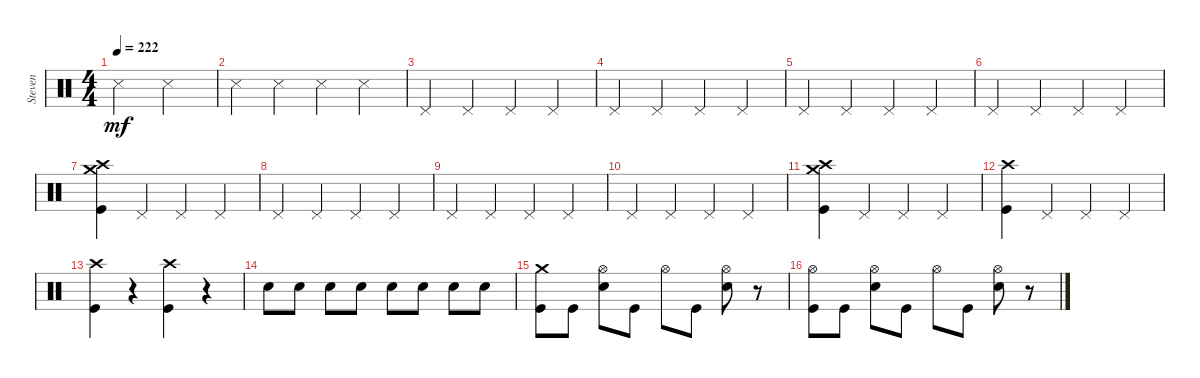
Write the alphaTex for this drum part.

\track ("Steven" "Steven") {instrument percussion}
\staff {score}
\articulation defaults
\ts (4 4)
\tempo 222
\clef neutral
\ks c "Snare (side stick) 3".2{dy mf} "Snare (side stick) 3".2
|
"Snare (side stick) 3".4 "Snare (side stick) 3".4 "Snare (side stick) 3".4 "Snare (side stick) 3".4 |
"Pedal Hi-Hat (hit)".4 "Pedal Hi-Hat (hit)".4 "Pedal Hi-Hat (hit)".4 "Pedal Hi-Hat (hit)".4 |
"Pedal Hi-Hat (hit)".4 "Pedal Hi-Hat (hit)".4 "Pedal Hi-Hat (hit)".4 "Pedal Hi-Hat (hit)".4 |
"Pedal Hi-Hat (hit)".4 "Pedal Hi-Hat (hit)".4 "Pedal Hi-Hat (hit)".4 "Pedal Hi-Hat (hit)".4 |
"Pedal Hi-Hat (hit)".4 "Pedal Hi-Hat (hit)".4 "Pedal Hi-Hat (hit)".4 "Pedal Hi-Hat (hit)".4 |
("Kick (hit)" "Crash high (hit)" "Crash medium (hit)").4 "Pedal Hi-Hat (hit)".4 "Pedal Hi-Hat (hit)".4 "Pedal Hi-Hat (hit)".4 |
"Pedal Hi-Hat (hit)".4 "Pedal Hi-Hat (hit)".4 "Pedal Hi-Hat (hit)".4 "Pedal Hi-Hat (hit)".4 |
"Pedal Hi-Hat (hit)".4 "Pedal Hi-Hat (hit)".4 "Pedal Hi-Hat (hit)".4 "Pedal Hi-Hat (hit)".4 |
"Pedal Hi-Hat (hit)".4 "Pedal Hi-Hat (hit)".4 "Pedal Hi-Hat (hit)".4 "Pedal Hi-Hat (hit)".4 |
("Kick (hit)" "Crash medium (hit)" "Crash high (hit)").4 "Pedal Hi-Hat (hit)".4 "Pedal Hi-Hat (hit)".4 "Pedal Hi-Hat (hit)".4 |
("Kick (hit)" "Crash high (hit)").4 "Pedal Hi-Hat (hit)".4 "Pedal Hi-Hat (hit)".4 "Pedal Hi-Hat (hit)".4 |
("Kick (hit)" "Crash high (hit)").4 r.4 ("Kick (hit)" "Crash high (hit)").4 r.4 |
"Snare (hit) 2".8 "Snare (hit) 2".8 "Snare (hit) 2".8 "Snare (hit) 2".8 "Snare (hit) 2".8 "Snare (hit) 2".8 "Snare (hit) 2".8 "Snare (hit) 2".8 |
("Kick (hit)" "Crash medium (hit)").8 "Kick (hit)".8 ("Snare (hit) 2" "Hi-Hat (open)").8 "Kick (hit)".8 "Hi-Hat (open)".8 "Kick (hit)".8 ("Snare (hit) 2" "Hi-Hat (open)").8 r.8 |
("Kick (hit)" "Hi-Hat (open)").8 "Kick (hit)".8 ("Snare (hit) 2" "Hi-Hat (open)").8 "Kick (hit)".8 "Hi-Hat (open)".8 "Kick (hit)".8 ("Snare (hit) 2" "Hi-Hat (open)").8 r.8
